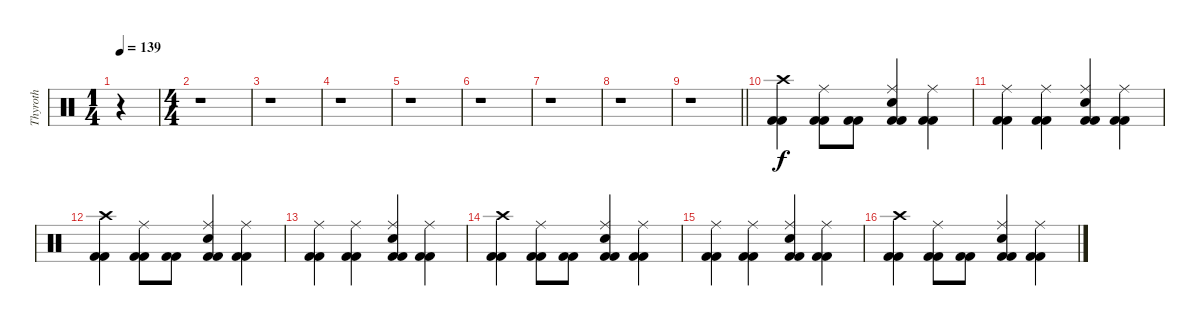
\track ("Thyroth" "Thyroth") {instrument percussion}
\staff {score}
\articulation defaults
\ts (1 4)
\tempo 139
\clef neutral
\ks c
r.4{dy f} |
\ts (4 4)
r.1 |
r.1 |
r.1 |
r.1 |
r.1 |
r.1 |
r.1 |
\barLineRight lightlight
r.1 |
("Kick (hit) 2" "Kick (hit) 2" "Crash high (hit)").4 ("Kick (hit) 2" "Kick (hit) 2" "Ride (middle)").8 ("Kick (hit) 2" "Kick (hit) 2").8 ("Kick (hit) 2" "Kick (hit) 2" "Snare (hit) 2" "Ride (middle)").4 ("Kick (hit) 2" "Kick (hit) 2" "Ride (middle)").4 |
("Kick (hit) 2" "Kick (hit) 2" "Ride (middle)").4 ("Kick (hit) 2" "Kick (hit) 2" "Ride (middle)").4 ("Kick (hit) 2" "Kick (hit) 2" "Snare (hit) 2" "Ride (middle)").4 ("Kick (hit) 2" "Kick (hit) 2" "Ride (middle)").4 |
("Kick (hit) 2" "Kick (hit) 2" "Crash high (hit)").4 ("Kick (hit) 2" "Kick (hit) 2" "Ride (middle)").8 ("Kick (hit) 2" "Kick (hit) 2").8 ("Kick (hit) 2" "Kick (hit) 2" "Snare (hit) 2" "Ride (middle)").4 ("Kick (hit) 2" "Kick (hit) 2" "Ride (middle)").4 |
("Kick (hit) 2" "Kick (hit) 2" "Ride (middle)").4 ("Kick (hit) 2" "Kick (hit) 2" "Ride (middle)").4 ("Kick (hit) 2" "Kick (hit) 2" "Snare (hit) 2" "Ride (middle)").4 ("Kick (hit) 2" "Kick (hit) 2" "Ride (middle)").4 |
("Kick (hit) 2" "Kick (hit) 2" "Crash high (hit)").4 ("Kick (hit) 2" "Kick (hit) 2" "Ride (middle)").8 ("Kick (hit) 2" "Kick (hit) 2").8 ("Kick (hit) 2" "Kick (hit) 2" "Snare (hit) 2" "Ride (middle)").4 ("Kick (hit) 2" "Kick (hit) 2" "Ride (middle)").4 |
("Kick (hit) 2" "Kick (hit) 2" "Ride (middle)").4 ("Kick (hit) 2" "Kick (hit) 2" "Ride (middle)").4 ("Kick (hit) 2" "Kick (hit) 2" "Snare (hit) 2" "Ride (middle)").4 ("Kick (hit) 2" "Kick (hit) 2" "Ride (middle)").4 |
("Kick (hit) 2" "Kick (hit) 2" "Crash high (hit)").4 ("Kick (hit) 2" "Kick (hit) 2" "Ride (middle)").8 ("Kick (hit) 2" "Kick (hit) 2").8 ("Kick (hit) 2" "Kick (hit) 2" "Snare (hit) 2" "Ride (middle)").4 ("Kick (hit) 2" "Kick (hit) 2" "Ride (middle)").4
